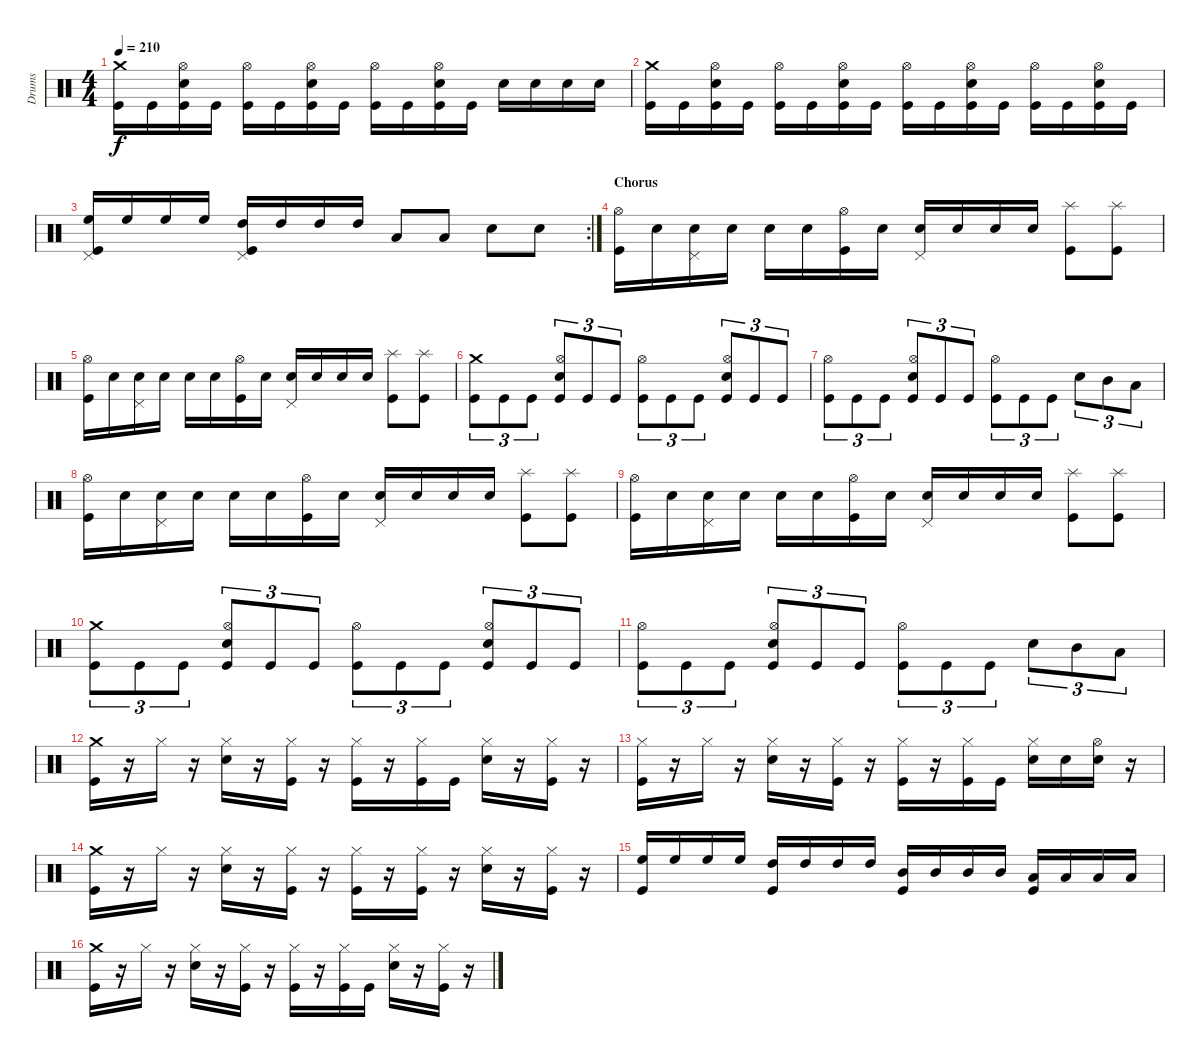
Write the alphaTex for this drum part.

\track ("Drums" "Drums") {instrument percussion}
\staff {score}
\articulation defaults
\ts (4 4)
\tempo 210
\clef neutral
\ks c
("Crash medium (hit)" "Kick (hit)").16{dy f} "Kick (hit)".16 ("Hi-Hat (open)" "Electric Snare (hit)" "Kick (hit)").16 "Kick (hit)".16 ("Hi-Hat (open)" "Kick (hit)").16 "Kick (hit)".16 ("Hi-Hat (open)" "Electric Snare (hit)" "Kick (hit)").16 "Kick (hit)".16 ("Hi-Hat (open)" "Kick (hit)").16 "Kick (hit)".16 ("Hi-Hat (open)" "Electric Snare (hit)" "Kick (hit)").16 "Kick (hit)".16 "Electric Snare (hit)".16 "Electric Snare (hit)".16 "Electric Snare (hit)".16 "Electric Snare (hit)".16 |
("Crash medium (hit)" "Kick (hit)").16 "Kick (hit)".16 ("Hi-Hat (open)" "Electric Snare (hit)" "Kick (hit)").16 "Kick (hit)".16 ("Hi-Hat (open)" "Kick (hit)").16 "Kick (hit)".16 ("Hi-Hat (open)" "Electric Snare (hit)" "Kick (hit)").16 "Kick (hit)".16 ("Hi-Hat (open)" "Kick (hit)").16 "Kick (hit)".16 ("Hi-Hat (open)" "Electric Snare (hit)" "Kick (hit)").16 "Kick (hit)".16 ("Hi-Hat (open)" "Kick (hit)").16 "Kick (hit)".16 ("Hi-Hat (open)" "Electric Snare (hit)" "Kick (hit)").16 "Kick (hit)".16 |
\rc 2
("High Floor Tom (hit)" "Pedal Hi-Hat (hit)" "Kick (hit)").16 "High Floor Tom (hit)".16 "High Floor Tom (hit)".16 "High Floor Tom (hit)".16 ("High Tom (hit)" "Pedal Hi-Hat (hit)" "Kick (hit)").16 "High Tom (hit)".16 "High Tom (hit)".16 "High Tom (hit)".16 "Low Tom (hit)".8 "Low Tom (hit)".8 "Electric Snare (hit)".8 "Electric Snare (hit)".8 |
\section ("" "Chorus")
("Hi-Hat (open)" "Kick (hit)").16 "Electric Snare (hit)".16 ("Pedal Hi-Hat (hit)" "Electric Snare (hit)").16 "Electric Snare (hit)".16 "Electric Snare (hit)".16 "Electric Snare (hit)".16 ("Hi-Hat (open)" "Kick (hit)").16 "Electric Snare (hit)".16 ("Pedal Hi-Hat (hit)" "Electric Snare (hit)").16 "Electric Snare (hit)".16 "Electric Snare (hit)".16 "Electric Snare (hit)".16 ("Splash (hit)" "Kick (hit)").8 ("Splash (hit)" "Kick (hit)").8 |
("Hi-Hat (open)" "Kick (hit)").16 "Electric Snare (hit)".16 ("Pedal Hi-Hat (hit)" "Electric Snare (hit)").16 "Electric Snare (hit)".16 "Electric Snare (hit)".16 "Electric Snare (hit)".16 ("Hi-Hat (open)" "Kick (hit)").16 "Electric Snare (hit)".16 ("Pedal Hi-Hat (hit)" "Electric Snare (hit)").16 "Electric Snare (hit)".16 "Electric Snare (hit)".16 "Electric Snare (hit)".16 ("Splash (hit)" "Kick (hit)").8 ("Splash (hit)" "Kick (hit)").8 |
("Crash medium (hit)" "Kick (hit)").8{tu (3 2)} "Kick (hit)".8{tu (3 2)} "Kick (hit)".8{tu (3 2)} ("Hi-Hat (open)" "Electric Snare (hit)" "Kick (hit)").8{tu (3 2)} "Kick (hit)".8{tu (3 2)} "Kick (hit)".8{tu (3 2)} ("Hi-Hat (open)" "Kick (hit)").8{tu (3 2)} "Kick (hit)".8{tu (3 2)} "Kick (hit)".8{tu (3 2)} ("Hi-Hat (open)" "Electric Snare (hit)" "Kick (hit)").8{tu (3 2)} "Kick (hit)".8{tu (3 2)} "Kick (hit)".8{tu (3 2)} |
("Hi-Hat (open)" "Kick (hit)").8{tu (3 2)} "Kick (hit)".8{tu (3 2)} "Kick (hit)".8{tu (3 2)} ("Hi-Hat (open)" "Electric Snare (hit)" "Kick (hit)").8{tu (3 2)} "Kick (hit)".8{tu (3 2)} "Kick (hit)".8{tu (3 2)} ("Hi-Hat (open)" "Kick (hit)").8{tu (3 2)} "Kick (hit)".8{tu (3 2)} "Kick (hit)".8{tu (3 2)} "Electric Snare (hit)".8{tu (3 2)} "Mid Tom (hit)".8{tu (3 2)} "Low Tom (hit)".8{tu (3 2)} |
("Hi-Hat (open)" "Kick (hit)").16 "Electric Snare (hit)".16 ("Pedal Hi-Hat (hit)" "Electric Snare (hit)").16 "Electric Snare (hit)".16 "Electric Snare (hit)".16 "Electric Snare (hit)".16 ("Hi-Hat (open)" "Kick (hit)").16 "Electric Snare (hit)".16 ("Pedal Hi-Hat (hit)" "Electric Snare (hit)").16 "Electric Snare (hit)".16 "Electric Snare (hit)".16 "Electric Snare (hit)".16 ("Splash (hit)" "Kick (hit)").8 ("Splash (hit)" "Kick (hit)").8 |
("Hi-Hat (open)" "Kick (hit)").16 "Electric Snare (hit)".16 ("Pedal Hi-Hat (hit)" "Electric Snare (hit)").16 "Electric Snare (hit)".16 "Electric Snare (hit)".16 "Electric Snare (hit)".16 ("Hi-Hat (open)" "Kick (hit)").16 "Electric Snare (hit)".16 ("Pedal Hi-Hat (hit)" "Electric Snare (hit)").16 "Electric Snare (hit)".16 "Electric Snare (hit)".16 "Electric Snare (hit)".16 ("Splash (hit)" "Kick (hit)").8 ("Splash (hit)" "Kick (hit)").8 |
("Crash medium (hit)" "Kick (hit)").8{tu (3 2)} "Kick (hit)".8{tu (3 2)} "Kick (hit)".8{tu (3 2)} ("Hi-Hat (open)" "Electric Snare (hit)" "Kick (hit)").8{tu (3 2)} "Kick (hit)".8{tu (3 2)} "Kick (hit)".8{tu (3 2)} ("Hi-Hat (open)" "Kick (hit)").8{tu (3 2)} "Kick (hit)".8{tu (3 2)} "Kick (hit)".8{tu (3 2)} ("Hi-Hat (open)" "Electric Snare (hit)" "Kick (hit)").8{tu (3 2)} "Kick (hit)".8{tu (3 2)} "Kick (hit)".8{tu (3 2)} |
("Hi-Hat (open)" "Kick (hit)").8{tu (3 2)} "Kick (hit)".8{tu (3 2)} "Kick (hit)".8{tu (3 2)} ("Hi-Hat (open)" "Electric Snare (hit)" "Kick (hit)").8{tu (3 2)} "Kick (hit)".8{tu (3 2)} "Kick (hit)".8{tu (3 2)} ("Hi-Hat (open)" "Kick (hit)").8{tu (3 2)} "Kick (hit)".8{tu (3 2)} "Kick (hit)".8{tu (3 2)} "Electric Snare (hit)".8{tu (3 2)} "Mid Tom (hit)".8{tu (3 2)} "Low Tom (hit)".8{tu (3 2)} |
("Crash medium (hit)" "Kick (hit)").16 r.16 "Hi-Hat (closed)".16 r.16 ("Hi-Hat (closed)" "Electric Snare (hit)").16 r.16 ("Hi-Hat (closed)" "Kick (hit)").16 r.16 ("Hi-Hat (closed)" "Kick (hit)").16 r.16 ("Hi-Hat (closed)" "Kick (hit)").16 "Kick (hit)".16 ("Hi-Hat (closed)" "Electric Snare (hit)").16 r.16 ("Hi-Hat (closed)" "Kick (hit)").16 r.16 |
("Hi-Hat (closed)" "Kick (hit)").16 r.16 "Hi-Hat (closed)".16 r.16 ("Hi-Hat (closed)" "Electric Snare (hit)").16 r.16 ("Hi-Hat (closed)" "Kick (hit)").16 r.16 ("Hi-Hat (closed)" "Kick (hit)").16 r.16 ("Hi-Hat (closed)" "Kick (hit)").16 "Kick (hit)".16 ("Hi-Hat (closed)" "Electric Snare (hit)").16 "Electric Snare (hit)".16 ("Hi-Hat (open)" "Electric Snare (hit)").16 r.16 |
("Crash medium (hit)" "Kick (hit)").16 r.16 "Hi-Hat (closed)".16 r.16 ("Hi-Hat (closed)" "Electric Snare (hit)").16 r.16 ("Hi-Hat (closed)" "Kick (hit)").16 r.16 ("Hi-Hat (closed)" "Kick (hit)").16 r.16 ("Hi-Hat (closed)" "Kick (hit)").16 r.16 ("Hi-Hat (closed)" "Electric Snare (hit)").16 r.16 ("Hi-Hat (closed)" "Kick (hit)").16 r.16 |
("High Floor Tom (hit)" "Kick (hit)").16 "High Floor Tom (hit)".16 "High Floor Tom (hit)".16 "High Floor Tom (hit)".16 ("High Tom (hit)" "Kick (hit)").16 "High Tom (hit)".16 "High Tom (hit)".16 "High Tom (hit)".16 ("Mid Tom (hit)" "Kick (hit)").16 "Mid Tom (hit)".16 "Mid Tom (hit)".16 "Mid Tom (hit)".16 ("Low Tom (hit)" "Kick (hit)").16 "Low Tom (hit)".16 "Low Tom (hit)".16 "Low Tom (hit)".16 |
("Crash medium (hit)" "Kick (hit)").16 r.16 "Hi-Hat (closed)".16 r.16 ("Hi-Hat (closed)" "Electric Snare (hit)").16 r.16 ("Hi-Hat (closed)" "Kick (hit)").16 r.16 ("Hi-Hat (closed)" "Kick (hit)").16 r.16 ("Hi-Hat (closed)" "Kick (hit)").16 "Kick (hit)".16 ("Hi-Hat (closed)" "Electric Snare (hit)").16 r.16 ("Hi-Hat (closed)" "Kick (hit)").16 r.16
